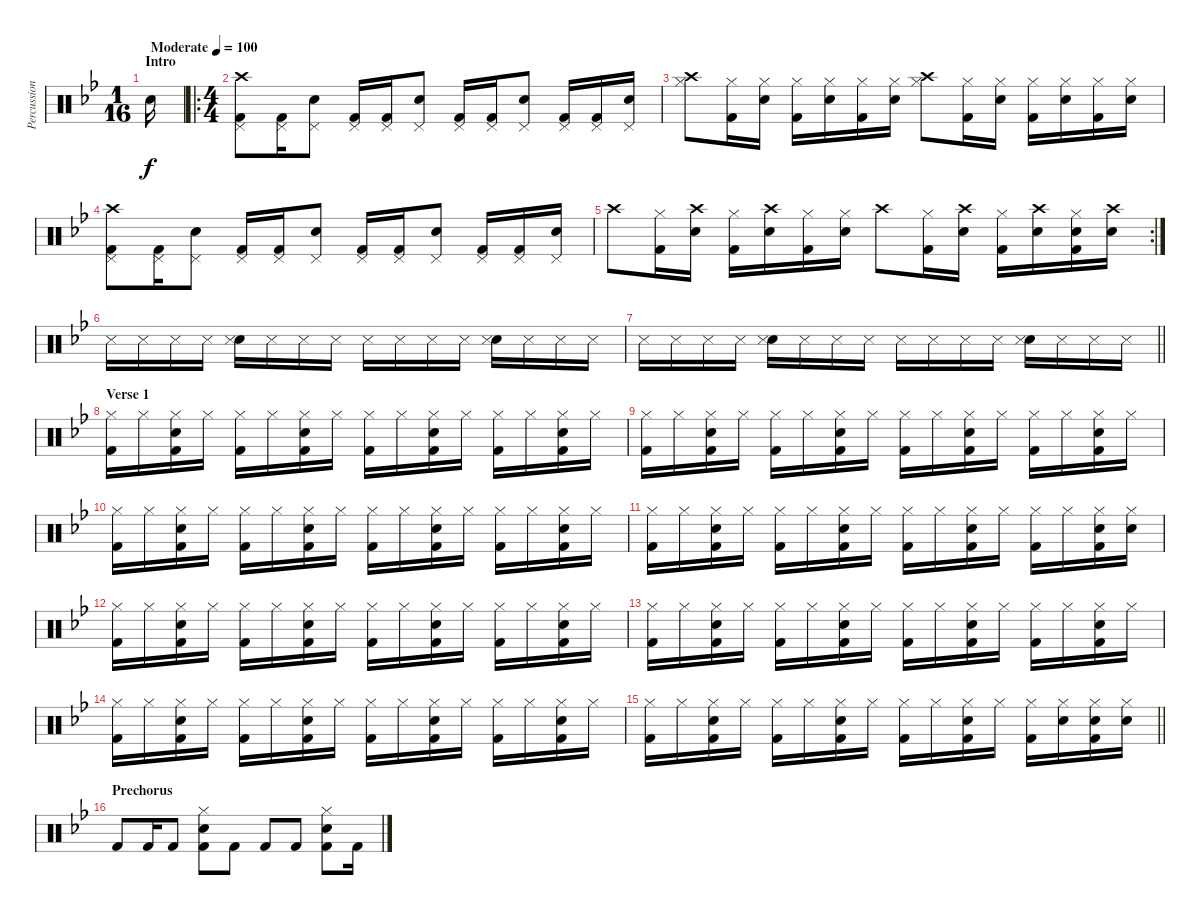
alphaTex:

\track ("Percussion" "Percussion") {instrument percussion}
\staff {score}
\articulation defaults
\ts (1 16)
\section ("" "Intro")
\tempo (100 "Moderate")
\clef neutral
\ks bb "Electric Snare (hit)".16{dy f}
|
\ro
\ts (4 4)
("Crash high (hit)" "Pedal Hi-Hat (hit)" "Kick (hit) 2").8 ("Pedal Hi-Hat (hit)" "Kick (hit) 2").16 ("Electric Snare (hit)" "Pedal Hi-Hat (hit)").8 ("Pedal Hi-Hat (hit)" "Kick (hit) 2").16 ("Pedal Hi-Hat (hit)" "Kick (hit) 2").16 ("Electric Snare (hit)" "Pedal Hi-Hat (hit)").8 ("Pedal Hi-Hat (hit)" "Kick (hit) 2").16 ("Pedal Hi-Hat (hit)" "Kick (hit) 2").16 ("Electric Snare (hit)" "Pedal Hi-Hat (hit)").8 ("Pedal Hi-Hat (hit)" "Kick (hit) 2").16 ("Pedal Hi-Hat (hit)" "Kick (hit) 2").16 ("Electric Snare (hit)" "Pedal Hi-Hat (hit)").16 |
("Crash high (hit)" "Hi-Hat (closed)").8 ("Hi-Hat (closed)" "Kick (hit) 2").16 ("Electric Snare (hit)" "Hi-Hat (closed)").16 ("Hi-Hat (closed)" "Kick (hit) 2").16 ("Electric Snare (hit)" "Hi-Hat (closed)").16 ("Hi-Hat (closed)" "Kick (hit) 2").16 ("Electric Snare (hit)" "Hi-Hat (closed)").16 ("Crash high (hit)" "Hi-Hat (closed)").8 ("Hi-Hat (closed)" "Kick (hit) 2").16 ("Electric Snare (hit)" "Hi-Hat (closed)").16 ("Hi-Hat (closed)" "Kick (hit) 2").16 ("Electric Snare (hit)" "Hi-Hat (closed)").16 ("Hi-Hat (closed)" "Kick (hit) 2").16 ("Electric Snare (hit)" "Hi-Hat (closed)").16 |
("Crash high (hit)" "Pedal Hi-Hat (hit)" "Kick (hit) 2").8 ("Pedal Hi-Hat (hit)" "Kick (hit) 2").16 ("Electric Snare (hit)" "Pedal Hi-Hat (hit)").8 ("Pedal Hi-Hat (hit)" "Kick (hit) 2").16 ("Pedal Hi-Hat (hit)" "Kick (hit) 2").16 ("Electric Snare (hit)" "Pedal Hi-Hat (hit)").8 ("Pedal Hi-Hat (hit)" "Kick (hit) 2").16 ("Pedal Hi-Hat (hit)" "Kick (hit) 2").16 ("Electric Snare (hit)" "Pedal Hi-Hat (hit)").8 ("Pedal Hi-Hat (hit)" "Kick (hit) 2").16 ("Pedal Hi-Hat (hit)" "Kick (hit) 2").16 ("Electric Snare (hit)" "Pedal Hi-Hat (hit)").16 |
\rc 2 "Crash high (hit)".8
("Hi-Hat (closed)" "Kick (hit) 2").16 ("Crash high (hit)" "Electric Snare (hit)").16 ("Hi-Hat (closed)" "Kick (hit) 2").16 ("Crash high (hit)" "Electric Snare (hit)").16 ("Hi-Hat (closed)" "Kick (hit) 2").16 ("Electric Snare (hit)" "Hi-Hat (closed)").16 "Crash high (hit)".8 ("Hi-Hat (closed)" "Kick (hit) 2").16 ("Crash high (hit)" "Electric Snare (hit)").16 ("Hi-Hat (closed)" "Kick (hit) 2").16 ("Crash high (hit)" "Electric Snare (hit)").16 ("Electric Snare (hit)" "Hi-Hat (closed)" "Kick (hit) 2").16 ("Crash high (hit)" "Electric Snare (hit)").16 |
"Snare (side stick) 3".16 "Snare (side stick) 3".16 "Snare (side stick) 3".16 "Snare (side stick) 3".16 ("Snare (hit) 2" "Snare (side stick) 3").16 "Snare (side stick) 3".16 "Snare (side stick) 3".16 "Snare (side stick) 3".16 "Snare (side stick) 3".16 "Snare (side stick) 3".16 "Snare (side stick) 3".16 "Snare (side stick) 3".16 ("Snare (hit) 2" "Snare (side stick) 3").16 "Snare (side stick) 3".16 "Snare (side stick) 3".16 "Snare (side stick) 3".16 |
\barLineRight lightlight "Snare (side stick) 3".16 "Snare (side stick) 3".16 "Snare (side stick) 3".16 "Snare (side stick) 3".16
("Snare (hit) 2" "Snare (side stick) 3").16 "Snare (side stick) 3".16 "Snare (side stick) 3".16 "Snare (side stick) 3".16 "Snare (side stick) 3".16 "Snare (side stick) 3".16 "Snare (side stick) 3".16 "Snare (side stick) 3".16 ("Snare (hit) 2" "Snare (side stick) 3").16 "Snare (side stick) 3".16 "Snare (side stick) 3".16 "Snare (side stick) 3".16 |
\section ("" "Verse 1")
("Hi-Hat (closed)" "Kick (hit) 2").16 "Hi-Hat (closed)".16 ("Electric Snare (hit)" "Hi-Hat (closed)" "Kick (hit) 2").16 "Hi-Hat (closed)".16 ("Hi-Hat (closed)" "Kick (hit) 2").16 "Hi-Hat (closed)".16 ("Electric Snare (hit)" "Hi-Hat (closed)" "Kick (hit) 2").16 "Hi-Hat (closed)".16 ("Hi-Hat (closed)" "Kick (hit) 2").16 "Hi-Hat (closed)".16 ("Electric Snare (hit)" "Hi-Hat (closed)" "Kick (hit) 2").16 "Hi-Hat (closed)".16 ("Hi-Hat (closed)" "Kick (hit) 2").16 "Hi-Hat (closed)".16 ("Electric Snare (hit)" "Hi-Hat (closed)" "Kick (hit) 2").16 "Hi-Hat (closed)".16 |
("Hi-Hat (closed)" "Kick (hit) 2").16 "Hi-Hat (closed)".16 ("Electric Snare (hit)" "Hi-Hat (closed)" "Kick (hit) 2").16 "Hi-Hat (closed)".16 ("Hi-Hat (closed)" "Kick (hit) 2").16 "Hi-Hat (closed)".16 ("Electric Snare (hit)" "Hi-Hat (closed)" "Kick (hit) 2").16 "Hi-Hat (closed)".16 ("Hi-Hat (closed)" "Kick (hit) 2").16 "Hi-Hat (closed)".16 ("Electric Snare (hit)" "Hi-Hat (closed)" "Kick (hit) 2").16 "Hi-Hat (closed)".16 ("Hi-Hat (closed)" "Kick (hit) 2").16 "Hi-Hat (closed)".16 ("Electric Snare (hit)" "Hi-Hat (closed)" "Kick (hit) 2").16 "Hi-Hat (closed)".16 |
("Hi-Hat (closed)" "Kick (hit) 2").16 "Hi-Hat (closed)".16 ("Electric Snare (hit)" "Hi-Hat (closed)" "Kick (hit) 2").16 "Hi-Hat (closed)".16 ("Hi-Hat (closed)" "Kick (hit) 2").16 "Hi-Hat (closed)".16 ("Electric Snare (hit)" "Hi-Hat (closed)" "Kick (hit) 2").16 "Hi-Hat (closed)".16 ("Hi-Hat (closed)" "Kick (hit) 2").16 "Hi-Hat (closed)".16 ("Electric Snare (hit)" "Hi-Hat (closed)" "Kick (hit) 2").16 "Hi-Hat (closed)".16 ("Hi-Hat (closed)" "Kick (hit) 2").16 "Hi-Hat (closed)".16 ("Electric Snare (hit)" "Hi-Hat (closed)" "Kick (hit) 2").16 "Hi-Hat (closed)".16 |
("Hi-Hat (closed)" "Kick (hit) 2").16 "Hi-Hat (closed)".16 ("Electric Snare (hit)" "Hi-Hat (closed)" "Kick (hit) 2").16 "Hi-Hat (closed)".16 ("Hi-Hat (closed)" "Kick (hit) 2").16 "Hi-Hat (closed)".16 ("Electric Snare (hit)" "Hi-Hat (closed)" "Kick (hit) 2").16 "Hi-Hat (closed)".16 ("Hi-Hat (closed)" "Kick (hit) 2").16 "Hi-Hat (closed)".16 ("Electric Snare (hit)" "Hi-Hat (closed)" "Kick (hit) 2").16 "Hi-Hat (closed)".16 ("Hi-Hat (closed)" "Kick (hit) 2").16 "Hi-Hat (closed)".16 ("Electric Snare (hit)" "Hi-Hat (closed)" "Kick (hit) 2").16 ("Electric Snare (hit)" "Hi-Hat (closed)").16 |
("Hi-Hat (closed)" "Kick (hit) 2").16 "Hi-Hat (closed)".16 ("Electric Snare (hit)" "Hi-Hat (closed)" "Kick (hit) 2").16 "Hi-Hat (closed)".16 ("Hi-Hat (closed)" "Kick (hit) 2").16 "Hi-Hat (closed)".16 ("Electric Snare (hit)" "Hi-Hat (closed)" "Kick (hit) 2").16 "Hi-Hat (closed)".16 ("Hi-Hat (closed)" "Kick (hit) 2").16 "Hi-Hat (closed)".16 ("Electric Snare (hit)" "Hi-Hat (closed)" "Kick (hit) 2").16 "Hi-Hat (closed)".16 ("Hi-Hat (closed)" "Kick (hit) 2").16 "Hi-Hat (closed)".16 ("Electric Snare (hit)" "Hi-Hat (closed)" "Kick (hit) 2").16 "Hi-Hat (closed)".16 |
("Hi-Hat (closed)" "Kick (hit) 2").16 "Hi-Hat (closed)".16 ("Electric Snare (hit)" "Hi-Hat (closed)" "Kick (hit) 2").16 "Hi-Hat (closed)".16 ("Hi-Hat (closed)" "Kick (hit) 2").16 "Hi-Hat (closed)".16 ("Electric Snare (hit)" "Hi-Hat (closed)" "Kick (hit) 2").16 "Hi-Hat (closed)".16 ("Hi-Hat (closed)" "Kick (hit) 2").16 "Hi-Hat (closed)".16 ("Electric Snare (hit)" "Hi-Hat (closed)" "Kick (hit) 2").16 "Hi-Hat (closed)".16 ("Hi-Hat (closed)" "Kick (hit) 2").16 "Hi-Hat (closed)".16 ("Electric Snare (hit)" "Hi-Hat (closed)" "Kick (hit) 2").16 "Hi-Hat (closed)".16 |
("Hi-Hat (closed)" "Kick (hit) 2").16 "Hi-Hat (closed)".16 ("Electric Snare (hit)" "Hi-Hat (closed)" "Kick (hit) 2").16 "Hi-Hat (closed)".16 ("Hi-Hat (closed)" "Kick (hit) 2").16 "Hi-Hat (closed)".16 ("Electric Snare (hit)" "Hi-Hat (closed)" "Kick (hit) 2").16 "Hi-Hat (closed)".16 ("Hi-Hat (closed)" "Kick (hit) 2").16 "Hi-Hat (closed)".16 ("Electric Snare (hit)" "Hi-Hat (closed)" "Kick (hit) 2").16 "Hi-Hat (closed)".16 ("Hi-Hat (closed)" "Kick (hit) 2").16 "Hi-Hat (closed)".16 ("Electric Snare (hit)" "Hi-Hat (closed)" "Kick (hit) 2").16 "Hi-Hat (closed)".16 |
\barLineRight lightlight
("Hi-Hat (closed)" "Kick (hit) 2").16 "Hi-Hat (closed)".16 ("Electric Snare (hit)" "Hi-Hat (closed)" "Kick (hit) 2").16 "Hi-Hat (closed)".16 ("Hi-Hat (closed)" "Kick (hit) 2").16 "Hi-Hat (closed)".16 ("Electric Snare (hit)" "Hi-Hat (closed)" "Kick (hit) 2").16 "Hi-Hat (closed)".16 ("Hi-Hat (closed)" "Kick (hit) 2").16 "Hi-Hat (closed)".16 ("Electric Snare (hit)" "Hi-Hat (closed)" "Kick (hit) 2").16 "Hi-Hat (closed)".16 ("Hi-Hat (closed)" "Kick (hit) 2").16 ("Electric Snare (hit)" "Hi-Hat (closed)").16 ("Electric Snare (hit)" "Hi-Hat (closed)" "Kick (hit) 2").16 ("Electric Snare (hit)" "Hi-Hat (closed)").16 |
\section ("" "Prechorus")
"Kick (hit) 2".8 "Kick (hit) 2".16 "Kick (hit) 2".8 ("Electric Snare (hit)" "Hi-Hat (closed)" "Kick (hit) 2").8 "Kick (hit) 2".8 "Kick (hit) 2".8 "Kick (hit) 2".8 ("Electric Snare (hit)" "Hi-Hat (closed)" "Kick (hit) 2").8 "Kick (hit) 2".16
